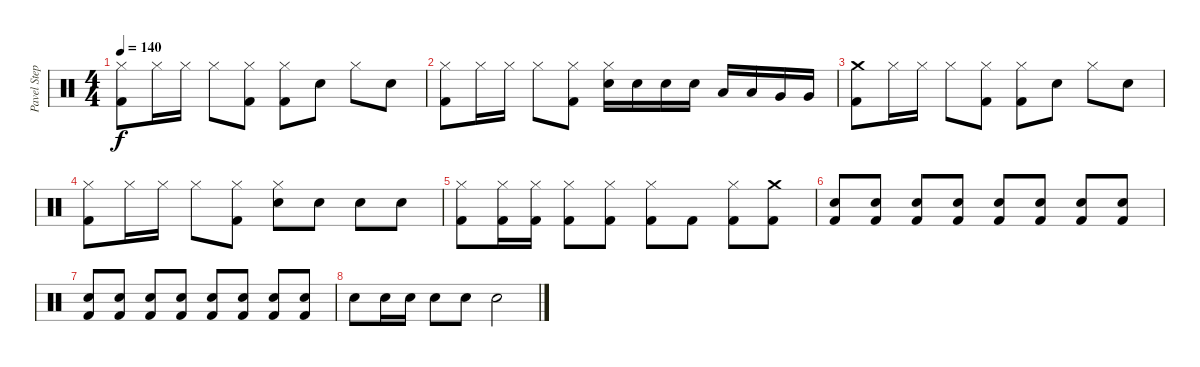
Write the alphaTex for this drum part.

\track ("Pavel Stepan" "Pavel Step") {instrument percussion}
\staff {score}
\articulation defaults
\ts (4 4)
\tempo 140
\clef neutral
\ks c
("Hi-Hat (closed)" "Kick (hit) 2").8{dy f} "Hi-Hat (closed)".16 "Hi-Hat (closed)".16 "Hi-Hat (closed)".8 ("Hi-Hat (closed)" "Kick (hit) 2").8 ("Hi-Hat (closed)" "Kick (hit) 2").8 "Snare (hit) 2".8 "Hi-Hat (closed)".8 "Snare (hit) 2".8 |
("Hi-Hat (closed)" "Kick (hit) 2").8 "Hi-Hat (closed)".16 "Hi-Hat (closed)".16 "Hi-Hat (closed)".8 ("Hi-Hat (closed)" "Kick (hit) 2").8 ("Hi-Hat (closed)" "Snare (hit) 2").16 "Snare (hit) 2".16 "Snare (hit) 2".16 "Snare (hit) 2".16 "Low Tom (hit)".16 "Low Tom (hit)".16 "Very Low Tom (hit)".16 "Very Low Tom (hit)".16 |
("Crash medium (hit)" "Kick (hit) 2").8 "Hi-Hat (closed)".16 "Hi-Hat (closed)".16 "Hi-Hat (closed)".8 ("Hi-Hat (closed)" "Kick (hit) 2").8 ("Hi-Hat (closed)" "Kick (hit) 2").8 "Snare (hit) 2".8 "Hi-Hat (closed)".8 "Snare (hit) 2".8 |
("Hi-Hat (closed)" "Kick (hit) 2").8 "Hi-Hat (closed)".16 "Hi-Hat (closed)".16 "Hi-Hat (closed)".8 ("Hi-Hat (closed)" "Kick (hit) 2").8 ("Hi-Hat (closed)" "Snare (hit) 2").8 "Snare (hit) 2".8 "Snare (hit) 2".8 "Snare (hit) 2".8 |
("Hi-Hat (closed)" "Kick (hit) 2").8 ("Hi-Hat (closed)" "Kick (hit) 2").16 ("Hi-Hat (closed)" "Kick (hit) 2").16 ("Hi-Hat (closed)" "Kick (hit) 2").8 ("Hi-Hat (closed)" "Kick (hit) 2").8 ("Hi-Hat (closed)" "Kick (hit) 2").8 "Kick (hit) 2".8 ("Hi-Hat (closed)" "Kick (hit) 2").8 ("Crash medium (hit)" "Kick (hit) 2").8 |
("Snare (hit) 2" "Kick (hit) 2").8{volume 3} ("Snare (hit) 2" "Kick (hit) 2").8 ("Snare (hit) 2" "Kick (hit) 2").8{volume 13} ("Snare (hit) 2" "Kick (hit) 2").8 ("Snare (hit) 2" "Kick (hit) 2").8 ("Snare (hit) 2" "Kick (hit) 2").8 ("Snare (hit) 2" "Kick (hit) 2").8 ("Snare (hit) 2" "Kick (hit) 2").8 |
("Snare (hit) 2" "Kick (hit) 2").8 ("Snare (hit) 2" "Kick (hit) 2").8 ("Snare (hit) 2" "Kick (hit) 2").8 ("Snare (hit) 2" "Kick (hit) 2").8 ("Snare (hit) 2" "Kick (hit) 2").8 ("Snare (hit) 2" "Kick (hit) 2").8 ("Snare (hit) 2" "Kick (hit) 2").8 ("Snare (hit) 2" "Kick (hit) 2").8 |
"Snare (hit) 2".8 "Snare (hit) 2".16 "Snare (hit) 2".16 "Snare (hit) 2".8 "Snare (hit) 2".8 "Snare (hit) 2".2
